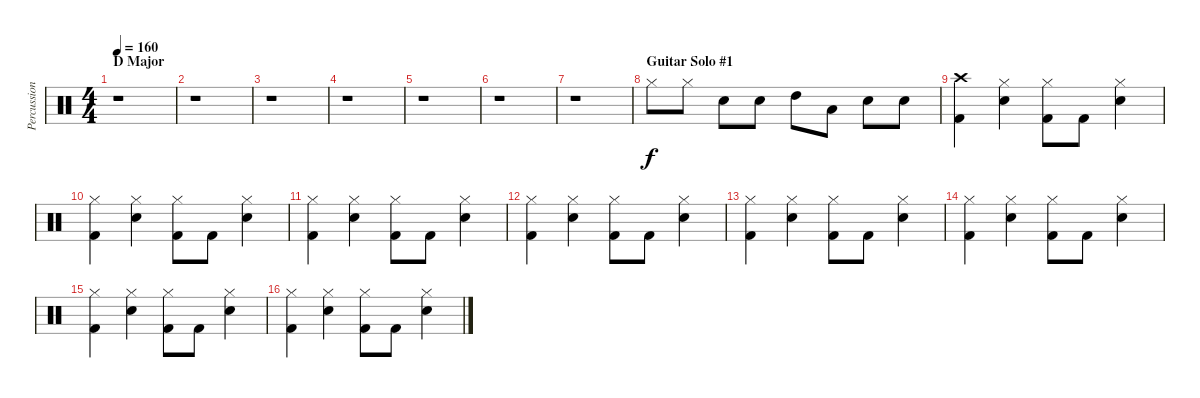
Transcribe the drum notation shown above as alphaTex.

\track ("Percussion" "Percussion") {instrument percussion}
\staff {score}
\articulation defaults
\ts (4 4)
\section ("" "D Major")
\tempo 160
\clef neutral
\ks c
r.1{dy f} |
r.1 |
r.1 |
r.1 |
r.1 |
r.1 |
r.1 |
\section ("" "Guitar Solo #1")
"Hi-Hat (closed)".8 "Hi-Hat (closed)".8 "Electric Snare (hit)".8 "Electric Snare (hit)".8 "High Tom (hit)".8 "Low Tom (hit)".8 "Electric Snare (hit)".8 "Electric Snare (hit)".8 |
("Crash high (hit)" "Kick (hit) 2").4 ("Hi-Hat (closed)" "Electric Snare (hit)").4 ("Hi-Hat (closed)" "Kick (hit) 2").8 "Kick (hit) 2".8 ("Hi-Hat (closed)" "Electric Snare (hit)").4 |
("Hi-Hat (closed)" "Kick (hit) 2").4 ("Hi-Hat (closed)" "Electric Snare (hit)").4 ("Hi-Hat (closed)" "Kick (hit) 2").8 "Kick (hit) 2".8 ("Hi-Hat (closed)" "Electric Snare (hit)").4 |
("Hi-Hat (closed)" "Kick (hit) 2").4 ("Hi-Hat (closed)" "Electric Snare (hit)").4 ("Hi-Hat (closed)" "Kick (hit) 2").8 "Kick (hit) 2".8 ("Hi-Hat (closed)" "Electric Snare (hit)").4 |
("Hi-Hat (closed)" "Kick (hit) 2").4 ("Hi-Hat (closed)" "Electric Snare (hit)").4 ("Hi-Hat (closed)" "Kick (hit) 2").8 "Kick (hit) 2".8 ("Hi-Hat (closed)" "Electric Snare (hit)").4 |
("Hi-Hat (closed)" "Kick (hit) 2").4 ("Hi-Hat (closed)" "Electric Snare (hit)").4 ("Hi-Hat (closed)" "Kick (hit) 2").8 "Kick (hit) 2".8 ("Hi-Hat (closed)" "Electric Snare (hit)").4 |
("Hi-Hat (closed)" "Kick (hit) 2").4 ("Hi-Hat (closed)" "Electric Snare (hit)").4 ("Hi-Hat (closed)" "Kick (hit) 2").8 "Kick (hit) 2".8 ("Hi-Hat (closed)" "Electric Snare (hit)").4 |
("Hi-Hat (closed)" "Kick (hit) 2").4 ("Hi-Hat (closed)" "Electric Snare (hit)").4 ("Hi-Hat (closed)" "Kick (hit) 2").8 "Kick (hit) 2".8 ("Hi-Hat (closed)" "Electric Snare (hit)").4 |
("Hi-Hat (closed)" "Kick (hit) 2").4 ("Hi-Hat (closed)" "Electric Snare (hit)").4 ("Hi-Hat (closed)" "Kick (hit) 2").8 "Kick (hit) 2".8 ("Hi-Hat (closed)" "Electric Snare (hit)").4
